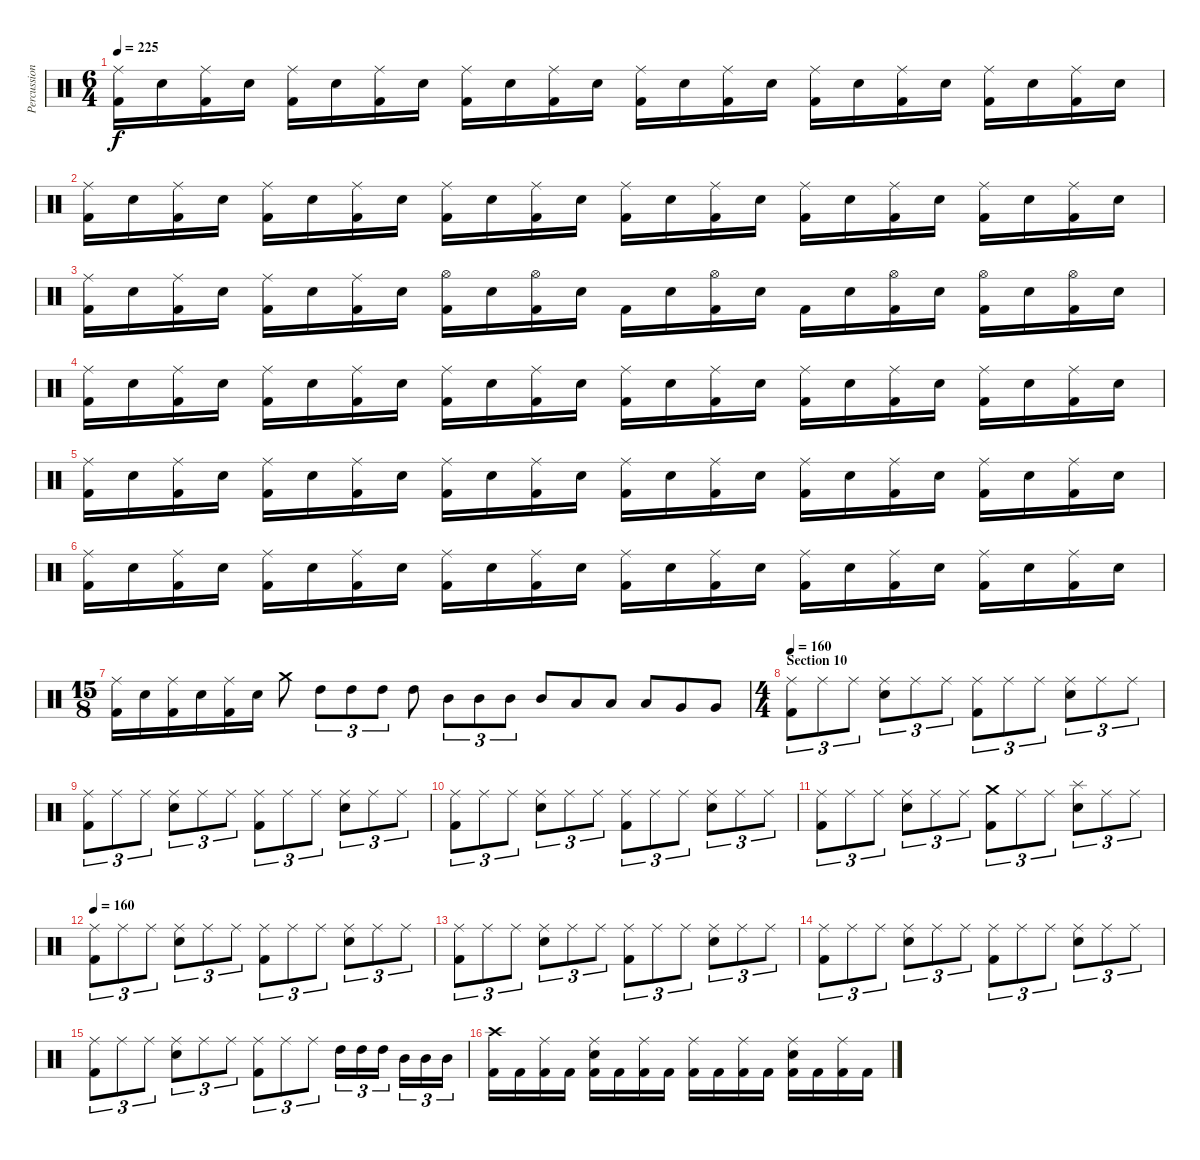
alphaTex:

\track ("Percussion" "Percussion") {instrument percussion}
\staff {score}
\articulation defaults
\ts (6 4)
\tempo 225
\clef neutral
\ks c
("Ride (middle)" "Kick (hit) 2").16{dy f} "Electric Snare (hit)".16 ("Ride (middle)" "Kick (hit) 2").16 "Electric Snare (hit)".16 ("Ride (middle)" "Kick (hit) 2").16 "Electric Snare (hit)".16 ("Ride (middle)" "Kick (hit) 2").16 "Electric Snare (hit)".16 ("Ride (middle)" "Kick (hit) 2").16 "Electric Snare (hit)".16 ("Ride (middle)" "Kick (hit) 2").16 "Electric Snare (hit)".16 ("Ride (middle)" "Kick (hit) 2").16 "Electric Snare (hit)".16 ("Ride (middle)" "Kick (hit) 2").16 "Electric Snare (hit)".16 ("Ride (middle)" "Kick (hit) 2").16 "Electric Snare (hit)".16 ("Ride (middle)" "Kick (hit) 2").16 "Electric Snare (hit)".16 ("Ride (middle)" "Kick (hit) 2").16 "Electric Snare (hit)".16 ("Ride (middle)" "Kick (hit) 2").16 "Electric Snare (hit)".16 |
("Ride (middle)" "Kick (hit) 2").16 "Electric Snare (hit)".16 ("Ride (middle)" "Kick (hit) 2").16 "Electric Snare (hit)".16 ("Ride (middle)" "Kick (hit) 2").16 "Electric Snare (hit)".16 ("Ride (middle)" "Kick (hit) 2").16 "Electric Snare (hit)".16 ("Ride (middle)" "Kick (hit) 2").16 "Electric Snare (hit)".16 ("Ride (middle)" "Kick (hit) 2").16 "Electric Snare (hit)".16 ("Ride (middle)" "Kick (hit) 2").16 "Electric Snare (hit)".16 ("Ride (middle)" "Kick (hit) 2").16 "Electric Snare (hit)".16 ("Ride (middle)" "Kick (hit) 2").16 "Electric Snare (hit)".16 ("Ride (middle)" "Kick (hit) 2").16 "Electric Snare (hit)".16 ("Ride (middle)" "Kick (hit) 2").16 "Electric Snare (hit)".16 ("Ride (middle)" "Kick (hit) 2").16 "Electric Snare (hit)".16 |
("Ride (middle)" "Kick (hit) 2").16 "Electric Snare (hit)".16 ("Ride (middle)" "Kick (hit) 2").16 "Electric Snare (hit)".16 ("Ride (middle)" "Kick (hit) 2").16 "Electric Snare (hit)".16 ("Ride (middle)" "Kick (hit) 2").16 "Electric Snare (hit)".16 ("Hi-Hat (open)" "Kick (hit) 2").16 "Electric Snare (hit)".16 ("Hi-Hat (open)" "Kick (hit) 2").16 "Electric Snare (hit)".16 "Kick (hit) 2".16 "Electric Snare (hit)".16 ("Hi-Hat (open)" "Kick (hit) 2").16 "Electric Snare (hit)".16 "Kick (hit) 2".16 "Electric Snare (hit)".16 ("Hi-Hat (open)" "Kick (hit) 2").16 "Electric Snare (hit)".16 ("Hi-Hat (open)" "Kick (hit) 2").16 "Electric Snare (hit)".16 ("Hi-Hat (open)" "Kick (hit) 2").16 "Electric Snare (hit)".16 |
("Ride (middle)" "Kick (hit) 2").16 "Electric Snare (hit)".16 ("Ride (middle)" "Kick (hit) 2").16 "Electric Snare (hit)".16 ("Ride (middle)" "Kick (hit) 2").16 "Electric Snare (hit)".16 ("Ride (middle)" "Kick (hit) 2").16 "Electric Snare (hit)".16 ("Ride (middle)" "Kick (hit) 2").16 "Electric Snare (hit)".16 ("Ride (middle)" "Kick (hit) 2").16 "Electric Snare (hit)".16 ("Ride (middle)" "Kick (hit) 2").16 "Electric Snare (hit)".16 ("Ride (middle)" "Kick (hit) 2").16 "Electric Snare (hit)".16 ("Ride (middle)" "Kick (hit) 2").16 "Electric Snare (hit)".16 ("Ride (middle)" "Kick (hit) 2").16 "Electric Snare (hit)".16 ("Ride (middle)" "Kick (hit) 2").16 "Electric Snare (hit)".16 ("Ride (middle)" "Kick (hit) 2").16 "Electric Snare (hit)".16 |
("Ride (middle)" "Kick (hit) 2").16 "Electric Snare (hit)".16 ("Ride (middle)" "Kick (hit) 2").16 "Electric Snare (hit)".16 ("Ride (middle)" "Kick (hit) 2").16 "Electric Snare (hit)".16 ("Ride (middle)" "Kick (hit) 2").16 "Electric Snare (hit)".16 ("Ride (middle)" "Kick (hit) 2").16 "Electric Snare (hit)".16 ("Ride (middle)" "Kick (hit) 2").16 "Electric Snare (hit)".16 ("Ride (middle)" "Kick (hit) 2").16 "Electric Snare (hit)".16 ("Ride (middle)" "Kick (hit) 2").16 "Electric Snare (hit)".16 ("Ride (middle)" "Kick (hit) 2").16 "Electric Snare (hit)".16 ("Ride (middle)" "Kick (hit) 2").16 "Electric Snare (hit)".16 ("Ride (middle)" "Kick (hit) 2").16 "Electric Snare (hit)".16 ("Ride (middle)" "Kick (hit) 2").16 "Electric Snare (hit)".16 |
("Ride (middle)" "Kick (hit) 2").16 "Electric Snare (hit)".16 ("Ride (middle)" "Kick (hit) 2").16 "Electric Snare (hit)".16 ("Ride (middle)" "Kick (hit) 2").16 "Electric Snare (hit)".16 ("Ride (middle)" "Kick (hit) 2").16 "Electric Snare (hit)".16 ("Ride (middle)" "Kick (hit) 2").16 "Electric Snare (hit)".16 ("Ride (middle)" "Kick (hit) 2").16 "Electric Snare (hit)".16 ("Ride (middle)" "Kick (hit) 2").16 "Electric Snare (hit)".16 ("Ride (middle)" "Kick (hit) 2").16 "Electric Snare (hit)".16 ("Ride (middle)" "Kick (hit) 2").16 "Electric Snare (hit)".16 ("Ride (middle)" "Kick (hit) 2").16 "Electric Snare (hit)".16 ("Ride (middle)" "Kick (hit) 2").16 "Electric Snare (hit)".16 ("Ride (middle)" "Kick (hit) 2").16 "Electric Snare (hit)".16 |
\ts (15 8)
("Ride (middle)" "Kick (hit) 2").16 "Electric Snare (hit)".16 ("Ride (middle)" "Kick (hit) 2").16 "Electric Snare (hit)".16 ("Ride (middle)" "Kick (hit) 2").16 "Electric Snare (hit)".16 "Crash medium (hit)".8 "High Tom (hit)".8{tu (3 2)} "High Tom (hit)".8{tu (3 2)} "High Tom (hit)".8{tu (3 2)} "High Tom (hit)".8 "Mid Tom (hit)".8{tu (3 2)} "Mid Tom (hit)".8{tu (3 2)} "Mid Tom (hit)".8{tu (3 2)} "Mid Tom (hit)".8 "Low Tom (hit)".8 "Low Tom (hit)".8 "Low Tom (hit)".8 "Very Low Tom (hit)".8 "Very Low Tom (hit)".8 |
\ts (4 4)
\section ("" "Section 10")
\tempo 160
("Ride (middle)" "Kick (hit) 2").8{tu (3 2)} "Ride (middle)".8{tu (3 2)} "Ride (middle)".8{tu (3 2)} ("Ride (middle)" "Electric Snare (hit)").8{tu (3 2)} "Ride (middle)".8{tu (3 2)} "Ride (middle)".8{tu (3 2)} ("Ride (middle)" "Kick (hit) 2").8{tu (3 2)} "Ride (middle)".8{tu (3 2)} "Ride (middle)".8{tu (3 2)} ("Ride (middle)" "Electric Snare (hit)").8{tu (3 2)} "Ride (middle)".8{tu (3 2)} "Ride (middle)".8{tu (3 2)} |
("Ride (middle)" "Kick (hit) 2").8{tu (3 2)} "Ride (middle)".8{tu (3 2)} "Ride (middle)".8{tu (3 2)} ("Ride (middle)" "Electric Snare (hit)").8{tu (3 2)} "Ride (middle)".8{tu (3 2)} "Ride (middle)".8{tu (3 2)} ("Ride (middle)" "Kick (hit) 2").8{tu (3 2)} "Ride (middle)".8{tu (3 2)} "Ride (middle)".8{tu (3 2)} ("Ride (middle)" "Electric Snare (hit)").8{tu (3 2)} "Ride (middle)".8{tu (3 2)} "Ride (middle)".8{tu (3 2)} |
("Ride (middle)" "Kick (hit) 2").8{tu (3 2)} "Ride (middle)".8{tu (3 2)} "Ride (middle)".8{tu (3 2)} ("Ride (middle)" "Electric Snare (hit)").8{tu (3 2)} "Ride (middle)".8{tu (3 2)} "Ride (middle)".8{tu (3 2)} ("Ride (middle)" "Kick (hit) 2").8{tu (3 2)} "Ride (middle)".8{tu (3 2)} "Ride (middle)".8{tu (3 2)} ("Ride (middle)" "Electric Snare (hit)").8{tu (3 2)} "Ride (middle)".8{tu (3 2)} "Ride (middle)".8{tu (3 2)} |
("Ride (middle)" "Kick (hit) 2").8{tu (3 2)} "Ride (middle)".8{tu (3 2)} "Ride (middle)".8{tu (3 2)} ("Ride (middle)" "Electric Snare (hit)").8{tu (3 2)} "Ride (middle)".8{tu (3 2)} "Ride (middle)".8{tu (3 2)} ("Crash medium (hit)" "Kick (hit) 2").8{tu (3 2)} "Ride (middle)".8{tu (3 2)} "Ride (middle)".8{tu (3 2)} ("Splash (hit)" "Electric Snare (hit)").8{tu (3 2)} "Ride (middle)".8{tu (3 2)} "Ride (middle)".8{tu (3 2)} |
\tempo 160
("Ride (middle)" "Kick (hit) 2").8{tu (3 2)} "Ride (middle)".8{tu (3 2)} "Ride (middle)".8{tu (3 2)} ("Ride (middle)" "Electric Snare (hit)").8{tu (3 2)} "Ride (middle)".8{tu (3 2)} "Ride (middle)".8{tu (3 2)} ("Ride (middle)" "Kick (hit) 2").8{tu (3 2)} "Ride (middle)".8{tu (3 2)} "Ride (middle)".8{tu (3 2)} ("Ride (middle)" "Electric Snare (hit)").8{tu (3 2)} "Ride (middle)".8{tu (3 2)} "Ride (middle)".8{tu (3 2)} |
("Ride (middle)" "Kick (hit) 2").8{tu (3 2)} "Ride (middle)".8{tu (3 2)} "Ride (middle)".8{tu (3 2)} ("Ride (middle)" "Electric Snare (hit)").8{tu (3 2)} "Ride (middle)".8{tu (3 2)} "Ride (middle)".8{tu (3 2)} ("Ride (middle)" "Kick (hit) 2").8{tu (3 2)} "Ride (middle)".8{tu (3 2)} "Ride (middle)".8{tu (3 2)} ("Ride (middle)" "Electric Snare (hit)").8{tu (3 2)} "Ride (middle)".8{tu (3 2)} "Ride (middle)".8{tu (3 2)} |
("Ride (middle)" "Kick (hit) 2").8{tu (3 2)} "Ride (middle)".8{tu (3 2)} "Ride (middle)".8{tu (3 2)} ("Ride (middle)" "Electric Snare (hit)").8{tu (3 2)} "Ride (middle)".8{tu (3 2)} "Ride (middle)".8{tu (3 2)} ("Ride (middle)" "Kick (hit) 2").8{tu (3 2)} "Ride (middle)".8{tu (3 2)} "Ride (middle)".8{tu (3 2)} ("Ride (middle)" "Electric Snare (hit)").8{tu (3 2)} "Ride (middle)".8{tu (3 2)} "Ride (middle)".8{tu (3 2)} |
("Ride (middle)" "Kick (hit) 2").8{tu (3 2)} "Ride (middle)".8{tu (3 2)} "Ride (middle)".8{tu (3 2)} ("Ride (middle)" "Electric Snare (hit)").8{tu (3 2)} "Ride (middle)".8{tu (3 2)} "Ride (middle)".8{tu (3 2)} ("Ride (middle)" "Kick (hit) 2").8{tu (3 2)} "Ride (middle)".8{tu (3 2)} "Ride (middle)".8{tu (3 2)} "High Tom (hit)".16{tu (3 2)} "High Tom (hit)".16{tu (3 2)} "High Tom (hit)".16{tu (3 2)} "Mid Tom (hit)".16{tu (3 2)} "Mid Tom (hit)".16{tu (3 2)} "Mid Tom (hit)".16{tu (3 2)} |
("Crash high (hit)" "Kick (hit) 2").16 "Kick (hit) 2".16 ("Ride (middle)" "Kick (hit) 2").16 "Kick (hit) 2".16 ("Ride (middle)" "Electric Snare (hit)" "Kick (hit) 2").16 "Kick (hit) 2".16 ("Ride (middle)" "Kick (hit) 2").16 "Kick (hit) 2".16 ("Ride (middle)" "Kick (hit) 2").16 "Kick (hit) 2".16 ("Ride (middle)" "Kick (hit) 2").16 "Kick (hit) 2".16 ("Ride (middle)" "Electric Snare (hit)" "Kick (hit) 2").16 "Kick (hit) 2".16 ("Ride (middle)" "Kick (hit) 2").16 "Kick (hit) 2".16
